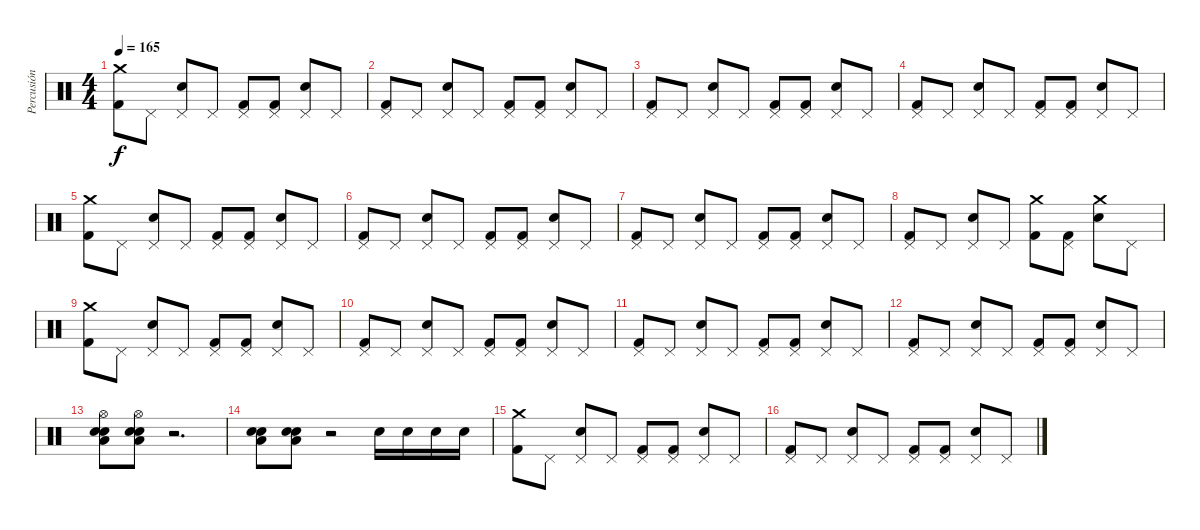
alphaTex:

\track ("Percusión" "Percusión") {instrument percussion}
\staff {score}
\articulation defaults
\ts (4 4)
\tempo 165
\clef neutral
\ks c
("Crash medium (hit)" "Kick (hit) 2").8{dy f} "Pedal Hi-Hat (hit)".8 ("Pedal Hi-Hat (hit)" "Electric Snare (hit)").8 "Pedal Hi-Hat (hit)".8 ("Pedal Hi-Hat (hit)" "Kick (hit) 2").8 ("Pedal Hi-Hat (hit)" "Kick (hit) 2").8 ("Pedal Hi-Hat (hit)" "Electric Snare (hit)").8 "Pedal Hi-Hat (hit)".8 |
("Pedal Hi-Hat (hit)" "Kick (hit) 2").8 "Pedal Hi-Hat (hit)".8 ("Pedal Hi-Hat (hit)" "Electric Snare (hit)").8 "Pedal Hi-Hat (hit)".8 ("Pedal Hi-Hat (hit)" "Kick (hit) 2").8 ("Pedal Hi-Hat (hit)" "Kick (hit) 2").8 ("Pedal Hi-Hat (hit)" "Electric Snare (hit)").8 "Pedal Hi-Hat (hit)".8 |
("Pedal Hi-Hat (hit)" "Kick (hit) 2").8 "Pedal Hi-Hat (hit)".8 ("Pedal Hi-Hat (hit)" "Electric Snare (hit)").8 "Pedal Hi-Hat (hit)".8 ("Pedal Hi-Hat (hit)" "Kick (hit) 2").8 ("Pedal Hi-Hat (hit)" "Kick (hit) 2").8 ("Pedal Hi-Hat (hit)" "Electric Snare (hit)").8 "Pedal Hi-Hat (hit)".8 |
("Pedal Hi-Hat (hit)" "Kick (hit) 2").8 "Pedal Hi-Hat (hit)".8 ("Pedal Hi-Hat (hit)" "Electric Snare (hit)").8 "Pedal Hi-Hat (hit)".8 ("Pedal Hi-Hat (hit)" "Kick (hit) 2").8 ("Pedal Hi-Hat (hit)" "Kick (hit) 2").8 ("Pedal Hi-Hat (hit)" "Electric Snare (hit)").8 "Pedal Hi-Hat (hit)".8 |
("Crash medium (hit)" "Kick (hit) 2").8 "Pedal Hi-Hat (hit)".8 ("Pedal Hi-Hat (hit)" "Electric Snare (hit)").8 "Pedal Hi-Hat (hit)".8 ("Pedal Hi-Hat (hit)" "Kick (hit) 2").8 ("Pedal Hi-Hat (hit)" "Kick (hit) 2").8 ("Pedal Hi-Hat (hit)" "Electric Snare (hit)").8 "Pedal Hi-Hat (hit)".8 |
("Pedal Hi-Hat (hit)" "Kick (hit) 2").8 "Pedal Hi-Hat (hit)".8 ("Pedal Hi-Hat (hit)" "Electric Snare (hit)").8 "Pedal Hi-Hat (hit)".8 ("Pedal Hi-Hat (hit)" "Kick (hit) 2").8 ("Pedal Hi-Hat (hit)" "Kick (hit) 2").8 ("Pedal Hi-Hat (hit)" "Electric Snare (hit)").8 "Pedal Hi-Hat (hit)".8 |
("Pedal Hi-Hat (hit)" "Kick (hit) 2").8 "Pedal Hi-Hat (hit)".8 ("Pedal Hi-Hat (hit)" "Electric Snare (hit)").8 "Pedal Hi-Hat (hit)".8 ("Pedal Hi-Hat (hit)" "Kick (hit) 2").8 ("Pedal Hi-Hat (hit)" "Kick (hit) 2").8 ("Pedal Hi-Hat (hit)" "Electric Snare (hit)").8 "Pedal Hi-Hat (hit)".8 |
("Pedal Hi-Hat (hit)" "Kick (hit) 2").8 "Pedal Hi-Hat (hit)".8 ("Pedal Hi-Hat (hit)" "Electric Snare (hit)").8 "Pedal Hi-Hat (hit)".8 ("Crash medium (hit)" "Kick (hit) 2").8 ("Pedal Hi-Hat (hit)" "Kick (hit) 2").8 ("Crash medium (hit)" "Electric Snare (hit)").8 "Pedal Hi-Hat (hit)".8 |
("Crash medium (hit)" "Kick (hit) 2").8 "Pedal Hi-Hat (hit)".8 ("Pedal Hi-Hat (hit)" "Electric Snare (hit)").8 "Pedal Hi-Hat (hit)".8 ("Pedal Hi-Hat (hit)" "Kick (hit) 2").8 ("Pedal Hi-Hat (hit)" "Kick (hit) 2").8 ("Pedal Hi-Hat (hit)" "Electric Snare (hit)").8 "Pedal Hi-Hat (hit)".8 |
("Pedal Hi-Hat (hit)" "Kick (hit) 2").8 "Pedal Hi-Hat (hit)".8 ("Pedal Hi-Hat (hit)" "Electric Snare (hit)").8 "Pedal Hi-Hat (hit)".8 ("Pedal Hi-Hat (hit)" "Kick (hit) 2").8 ("Pedal Hi-Hat (hit)" "Kick (hit) 2").8 ("Pedal Hi-Hat (hit)" "Electric Snare (hit)").8 "Pedal Hi-Hat (hit)".8 |
("Pedal Hi-Hat (hit)" "Kick (hit) 2").8 "Pedal Hi-Hat (hit)".8 ("Pedal Hi-Hat (hit)" "Electric Snare (hit)").8 "Pedal Hi-Hat (hit)".8 ("Pedal Hi-Hat (hit)" "Kick (hit) 2").8 ("Pedal Hi-Hat (hit)" "Kick (hit) 2").8 ("Pedal Hi-Hat (hit)" "Electric Snare (hit)").8 "Pedal Hi-Hat (hit)".8 |
("Pedal Hi-Hat (hit)" "Kick (hit) 2").8 "Pedal Hi-Hat (hit)".8 ("Pedal Hi-Hat (hit)" "Electric Snare (hit)").8 "Pedal Hi-Hat (hit)".8 ("Pedal Hi-Hat (hit)" "Kick (hit) 2").8 ("Pedal Hi-Hat (hit)" "Kick (hit) 2").8 ("Pedal Hi-Hat (hit)" "Electric Snare (hit)").8 "Pedal Hi-Hat (hit)".8 |
("Hi-Hat (open)" "Electric Snare (hit)" "Low Tom (hit)" "Snare (hit) 2").8 ("Hi-Hat (open)" "Electric Snare (hit)" "Low Tom (hit)" "Snare (hit) 2").8 r.2{d} |
("Electric Snare (hit)" "Low Tom (hit)" "Snare (hit) 2").8 ("Electric Snare (hit)" "Low Tom (hit)" "Snare (hit) 2").8 r.2 "Electric Snare (hit)".16 "Electric Snare (hit)".16 "Electric Snare (hit)".16 "Electric Snare (hit)".16 |
("Crash medium (hit)" "Kick (hit) 2").8 "Pedal Hi-Hat (hit)".8 ("Pedal Hi-Hat (hit)" "Electric Snare (hit)").8 "Pedal Hi-Hat (hit)".8 ("Pedal Hi-Hat (hit)" "Kick (hit) 2").8 ("Pedal Hi-Hat (hit)" "Kick (hit) 2").8 ("Pedal Hi-Hat (hit)" "Electric Snare (hit)").8 "Pedal Hi-Hat (hit)".8 |
("Pedal Hi-Hat (hit)" "Kick (hit) 2").8 "Pedal Hi-Hat (hit)".8 ("Pedal Hi-Hat (hit)" "Electric Snare (hit)").8 "Pedal Hi-Hat (hit)".8 ("Pedal Hi-Hat (hit)" "Kick (hit) 2").8 ("Pedal Hi-Hat (hit)" "Kick (hit) 2").8 ("Pedal Hi-Hat (hit)" "Electric Snare (hit)").8 "Pedal Hi-Hat (hit)".8
